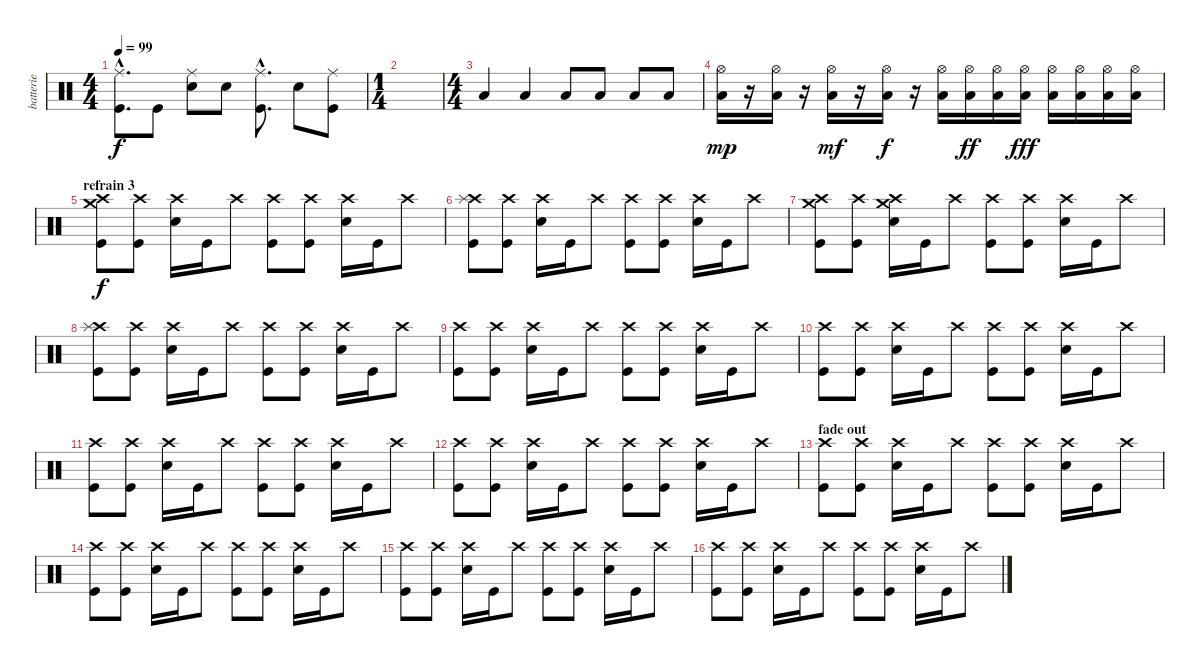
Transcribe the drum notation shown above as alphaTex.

\track ("batterie" "batterie") {instrument percussion}
\staff {score}
\articulation defaults
\ts (4 4)
\tempo 99
\clef neutral
\ks c
("Ride (middle)"{hac} "Kick (hit)"{hac}).8{d dy f} "Kick (hit)".8 ("Ride (middle)" "Electric Snare (hit)").8 "Electric Snare (hit)".8 ("Ride (middle)"{hac} "Kick (hit)"{hac}).8{d} "Electric Snare (hit)".8 ("Ride (middle)" "Kick (hit)").8 |
\ts (1 4)
|
\ts (4 4)
"Low Floor Tom (hit)".4 "Low Floor Tom (hit)".4 "Low Floor Tom (hit)".8 "Low Floor Tom (hit)".8 "Low Floor Tom (hit)".8 "Low Floor Tom (hit)".8 |
("Hi-Hat (open)" "Low Floor Tom (hit)").16{dy mp} r.16 ("Hi-Hat (open)" "Low Floor Tom (hit)").16 r.16 ("Hi-Hat (open)" "Low Floor Tom (hit)").16{dy mf} r.16 ("Hi-Hat (open)" "Low Floor Tom (hit)").16{dy f} r.16 ("Hi-Hat (open)" "Low Floor Tom (hit)").16 ("Hi-Hat (open)" "Low Floor Tom (hit)").16{dy ff} ("Hi-Hat (open)" "Low Floor Tom (hit)").16 ("Hi-Hat (open)" "Low Floor Tom (hit)").16{dy fff} ("Hi-Hat (open)" "Low Floor Tom (hit)").16 ("Hi-Hat (open)" "Low Floor Tom (hit)").16 ("Hi-Hat (open)" "Low Floor Tom (hit)").16 ("Hi-Hat (open)" "Low Floor Tom (hit)").16 |
\section ("" "refrain 3")
("Crash high (hit)" "Crash medium (hit)" "Kick (hit)").8{dy f} ("Crash high (hit)" "Kick (hit)").8 ("Crash high (hit)" "Electric Snare (hit)").16 "Kick (hit)".16 "Crash high (hit)".8 ("Crash high (hit)" "Kick (hit)").8 ("Crash high (hit)" "Kick (hit)").8 ("Crash high (hit)" "Electric Snare (hit)").16 "Kick (hit)".16 "Crash high (hit)".8 |
("Crash high (hit)" "Splash (hit)" "Kick (hit)").8 ("Crash high (hit)" "Kick (hit)").8 ("Crash high (hit)" "Electric Snare (hit)").16 "Kick (hit)".16 "Crash high (hit)".8 ("Crash high (hit)" "Kick (hit)").8 ("Crash high (hit)" "Kick (hit)").8 ("Crash high (hit)" "Electric Snare (hit)").16 "Kick (hit)".16 "Crash high (hit)".8 |
("Crash high (hit)" "Crash medium (hit)" "Kick (hit)").8 ("Crash high (hit)" "Kick (hit)").8 ("Crash high (hit)" "Crash medium (hit)" "Electric Snare (hit)").16 "Kick (hit)".16 "Crash high (hit)".8 ("Crash high (hit)" "Kick (hit)").8 ("Crash high (hit)" "Kick (hit)").8 ("Crash high (hit)" "Electric Snare (hit)").16 "Kick (hit)".16 "Crash high (hit)".8 |
("Crash high (hit)" "Splash (hit)" "Kick (hit)").8 ("Crash high (hit)" "Kick (hit)").8 ("Crash high (hit)" "Electric Snare (hit)").16 "Kick (hit)".16 "Crash high (hit)".8 ("Crash high (hit)" "Kick (hit)").8 ("Crash high (hit)" "Kick (hit)").8 ("Crash high (hit)" "Electric Snare (hit)").16 "Kick (hit)".16 "Crash high (hit)".8 |
("Crash high (hit)" "Kick (hit)").8 ("Crash high (hit)" "Kick (hit)").8 ("Crash high (hit)" "Electric Snare (hit)").16 "Kick (hit)".16 "Crash high (hit)".8 ("Crash high (hit)" "Kick (hit)").8 ("Crash high (hit)" "Kick (hit)").8 ("Crash high (hit)" "Electric Snare (hit)").16 "Kick (hit)".16 "Crash high (hit)".8 |
("Crash high (hit)" "Kick (hit)").8 ("Crash high (hit)" "Kick (hit)").8 ("Crash high (hit)" "Electric Snare (hit)").16 "Kick (hit)".16 "Crash high (hit)".8 ("Crash high (hit)" "Kick (hit)").8 ("Crash high (hit)" "Kick (hit)").8 ("Crash high (hit)" "Electric Snare (hit)").16 "Kick (hit)".16 "Crash high (hit)".8 |
("Crash high (hit)" "Kick (hit)").8 ("Crash high (hit)" "Kick (hit)").8 ("Crash high (hit)" "Electric Snare (hit)").16 "Kick (hit)".16 "Crash high (hit)".8 ("Crash high (hit)" "Kick (hit)").8 ("Crash high (hit)" "Kick (hit)").8 ("Crash high (hit)" "Electric Snare (hit)").16 "Kick (hit)".16 "Crash high (hit)".8 |
("Crash high (hit)" "Kick (hit)").8 ("Crash high (hit)" "Kick (hit)").8 ("Crash high (hit)" "Electric Snare (hit)").16 "Kick (hit)".16 "Crash high (hit)".8 ("Crash high (hit)" "Kick (hit)").8 ("Crash high (hit)" "Kick (hit)").8 ("Crash high (hit)" "Electric Snare (hit)").16 "Kick (hit)".16 "Crash high (hit)".8 |
\section ("" "fade out")
("Crash high (hit)" "Kick (hit)").8{volume 0} ("Crash high (hit)" "Kick (hit)").8 ("Crash high (hit)" "Electric Snare (hit)").16 "Kick (hit)".16 "Crash high (hit)".8 ("Crash high (hit)" "Kick (hit)").8 ("Crash high (hit)" "Kick (hit)").8 ("Crash high (hit)" "Electric Snare (hit)").16 "Kick (hit)".16 "Crash high (hit)".8 |
("Crash high (hit)" "Kick (hit)").8 ("Crash high (hit)" "Kick (hit)").8 ("Crash high (hit)" "Electric Snare (hit)").16 "Kick (hit)".16 "Crash high (hit)".8 ("Crash high (hit)" "Kick (hit)").8 ("Crash high (hit)" "Kick (hit)").8 ("Crash high (hit)" "Electric Snare (hit)").16 "Kick (hit)".16 "Crash high (hit)".8 |
("Crash high (hit)" "Kick (hit)").8 ("Crash high (hit)" "Kick (hit)").8 ("Crash high (hit)" "Electric Snare (hit)").16 "Kick (hit)".16 "Crash high (hit)".8 ("Crash high (hit)" "Kick (hit)").8 ("Crash high (hit)" "Kick (hit)").8 ("Crash high (hit)" "Electric Snare (hit)").16 "Kick (hit)".16 "Crash high (hit)".8 |
("Crash high (hit)" "Kick (hit)").8 ("Crash high (hit)" "Kick (hit)").8 ("Crash high (hit)" "Electric Snare (hit)").16 "Kick (hit)".16 "Crash high (hit)".8 ("Crash high (hit)" "Kick (hit)").8 ("Crash high (hit)" "Kick (hit)").8 ("Crash high (hit)" "Electric Snare (hit)").16 "Kick (hit)".16 "Crash high (hit)".8
